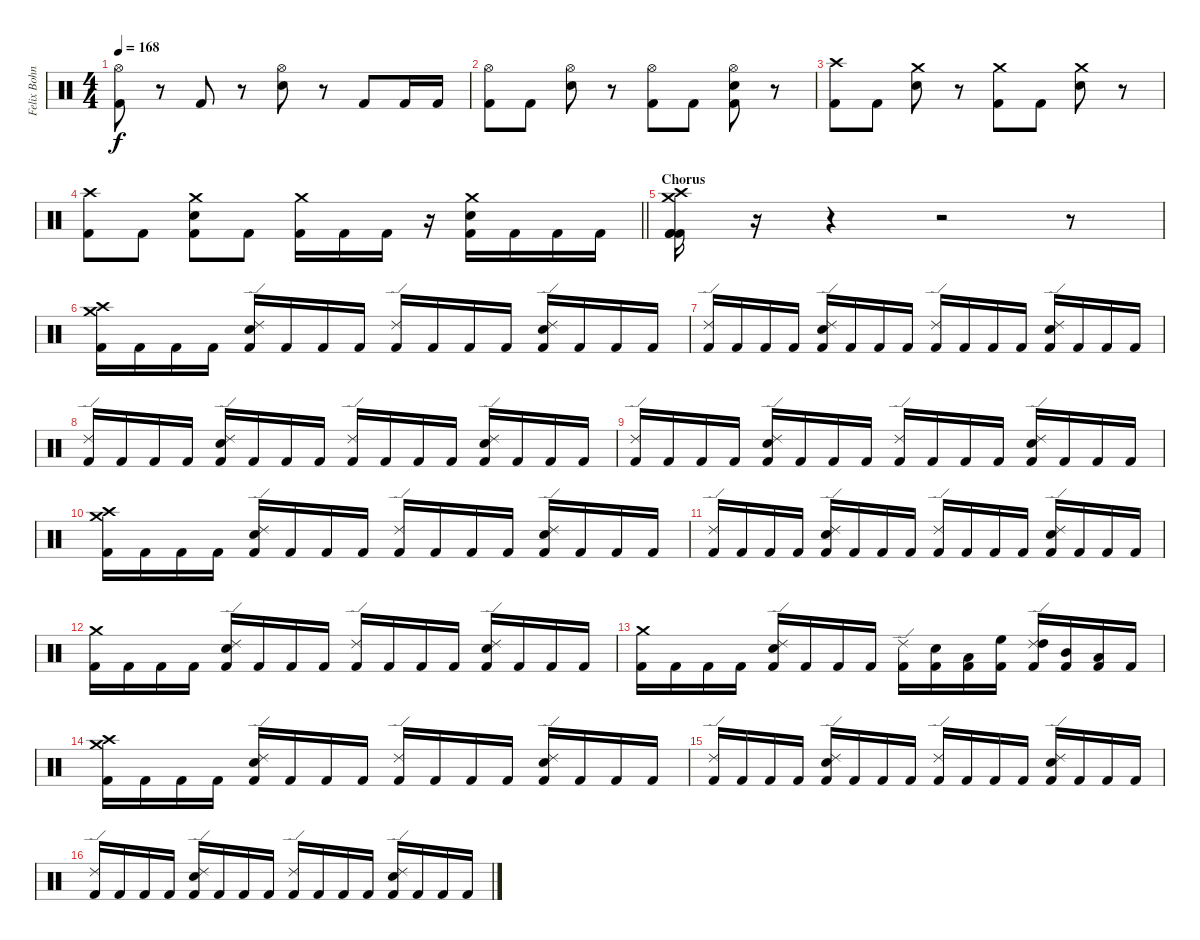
\track ("Felix Bohnke" "Felix Bohn") {instrument percussion}
\staff {score}
\articulation defaults
\ts (4 4)
\tempo 168
\clef neutral
\ks c
("Hi-Hat (open)" "Kick (hit) 2").8{dy f} r.8 "Kick (hit) 2".8 r.8 ("Hi-Hat (open)" "Electric Snare (hit)").8 r.8 "Kick (hit) 2".8 "Kick (hit) 2".16 "Kick (hit) 2".16 |
("Hi-Hat (open)" "Kick (hit) 2").8 "Kick (hit) 2".8 ("Hi-Hat (open)" "Snare (hit) 2").8 r.8 ("Hi-Hat (open)" "Kick (hit) 2").8 "Kick (hit) 2".8 ("Hi-Hat (open)" "Snare (hit) 2" "Kick (hit) 2").8 r.8 |
("Crash high (hit)" "Kick (hit) 2").8 "Kick (hit) 2".8 ("Crash medium (hit)" "Snare (hit) 2").8 r.8 ("Crash medium (hit)" "Kick (hit) 2").8 "Kick (hit) 2".8 ("Crash medium (hit)" "Snare (hit) 2").8 r.8 |
\barLineRight lightlight
("Crash high (hit)" "Kick (hit) 2").8 "Kick (hit) 2".8 ("Crash medium (hit)" "Snare (hit) 2" "Kick (hit) 2").8 "Kick (hit) 2".8 ("Crash medium (hit)" "Kick (hit) 2").16 "Kick (hit) 2".16 "Kick (hit) 2".16 r.16 ("Crash medium (hit)" "Snare (hit) 2" "Kick (hit) 2").16 "Kick (hit) 2".16 "Kick (hit) 2".16 "Kick (hit) 2".16 |
\section ("" "Chorus")
("Crash high (hit)" "Crash medium (hit)" "Kick (hit) 2" "Kick (hit) 2" "Kick (hit) 2").16 r.16 r.4 r.2 r.8 |
("Crash high (hit)" "Crash medium (hit)" "Kick (hit) 2").16 "Kick (hit) 2".16 "Kick (hit) 2".16 "Kick (hit) 2".16 ("Ride (edge) 2" "Snare (hit) 2" "Kick (hit) 2").16 "Kick (hit) 2".16 "Kick (hit) 2".16 "Kick (hit) 2".16 ("Ride (edge) 2" "Kick (hit) 2").16 "Kick (hit) 2".16 "Kick (hit) 2".16 "Kick (hit) 2".16 ("Ride (edge) 2" "Snare (hit) 2" "Kick (hit) 2").16 "Kick (hit) 2".16 "Kick (hit) 2".16 "Kick (hit) 2".16 |
("Ride (edge) 2" "Kick (hit) 2").16 "Kick (hit) 2".16 "Kick (hit) 2".16 "Kick (hit) 2".16 ("Ride (edge) 2" "Snare (hit) 2" "Kick (hit) 2").16 "Kick (hit) 2".16 "Kick (hit) 2".16 "Kick (hit) 2".16 ("Ride (edge) 2" "Kick (hit) 2").16 "Kick (hit) 2".16 "Kick (hit) 2".16 "Kick (hit) 2".16 ("Ride (edge) 2" "Snare (hit) 2" "Kick (hit) 2").16 "Kick (hit) 2".16 "Kick (hit) 2".16 "Kick (hit) 2".16 |
("Ride (edge) 2" "Kick (hit) 2").16 "Kick (hit) 2".16 "Kick (hit) 2".16 "Kick (hit) 2".16 ("Ride (edge) 2" "Snare (hit) 2" "Kick (hit) 2").16 "Kick (hit) 2".16 "Kick (hit) 2".16 "Kick (hit) 2".16 ("Ride (edge) 2" "Kick (hit) 2").16 "Kick (hit) 2".16 "Kick (hit) 2".16 "Kick (hit) 2".16 ("Ride (edge) 2" "Snare (hit) 2" "Kick (hit) 2").16 "Kick (hit) 2".16 "Kick (hit) 2".16 "Kick (hit) 2".16 |
("Ride (edge) 2" "Kick (hit) 2").16 "Kick (hit) 2".16 "Kick (hit) 2".16 "Kick (hit) 2".16 ("Ride (edge) 2" "Snare (hit) 2" "Kick (hit) 2").16 "Kick (hit) 2".16 "Kick (hit) 2".16 "Kick (hit) 2".16 ("Ride (edge) 2" "Kick (hit) 2").16 "Kick (hit) 2".16 "Kick (hit) 2".16 "Kick (hit) 2".16 ("Ride (edge) 2" "Snare (hit) 2" "Kick (hit) 2").16 "Kick (hit) 2".16 "Kick (hit) 2".16 "Kick (hit) 2".16 |
("Crash high (hit)" "Crash medium (hit)" "Kick (hit) 2").16 "Kick (hit) 2".16 "Kick (hit) 2".16 "Kick (hit) 2".16 ("Ride (edge) 2" "Snare (hit) 2" "Kick (hit) 2").16 "Kick (hit) 2".16 "Kick (hit) 2".16 "Kick (hit) 2".16 ("Ride (edge) 2" "Kick (hit) 2").16 "Kick (hit) 2".16 "Kick (hit) 2".16 "Kick (hit) 2".16 ("Ride (edge) 2" "Snare (hit) 2" "Kick (hit) 2").16 "Kick (hit) 2".16 "Kick (hit) 2".16 "Kick (hit) 2".16 |
("Ride (edge) 2" "Kick (hit) 2").16 "Kick (hit) 2".16 "Kick (hit) 2".16 "Kick (hit) 2".16 ("Ride (edge) 2" "Snare (hit) 2" "Kick (hit) 2").16 "Kick (hit) 2".16 "Kick (hit) 2".16 "Kick (hit) 2".16 ("Ride (edge) 2" "Kick (hit) 2").16 "Kick (hit) 2".16 "Kick (hit) 2".16 "Kick (hit) 2".16 ("Ride (edge) 2" "Snare (hit) 2" "Kick (hit) 2").16 "Kick (hit) 2".16 "Kick (hit) 2".16 "Kick (hit) 2".16 |
("Crash medium (hit)" "Kick (hit) 2").16 "Kick (hit) 2".16 "Kick (hit) 2".16 "Kick (hit) 2".16 ("Ride (edge) 2" "Snare (hit) 2" "Kick (hit) 2").16 "Kick (hit) 2".16 "Kick (hit) 2".16 "Kick (hit) 2".16 ("Ride (edge) 2" "Kick (hit) 2").16 "Kick (hit) 2".16 "Kick (hit) 2".16 "Kick (hit) 2".16 ("Ride (edge) 2" "Snare (hit) 2" "Kick (hit) 2").16 "Kick (hit) 2".16 "Kick (hit) 2".16 "Kick (hit) 2".16 |
("Crash medium (hit)" "Kick (hit) 2").16 "Kick (hit) 2".16 "Kick (hit) 2".16 "Kick (hit) 2".16 ("Ride (edge) 2" "Snare (hit) 2" "Kick (hit) 2").16 "Kick (hit) 2".16 "Kick (hit) 2".16 "Kick (hit) 2".16 ("Ride (edge) 2" "Kick (hit) 2").16 ("Snare (hit) 2" "Kick (hit) 2").16 ("Low Tom (hit)" "Kick (hit) 2").16 ("High Floor Tom (hit)" "Kick (hit) 2").16 ("Ride (edge) 2" "High Tom (hit)" "Kick (hit) 2").16 ("Mid Tom (hit)" "Kick (hit) 2").16 ("Low Tom (hit)" "Kick (hit) 2").16 "Kick (hit) 2".16 |
("Crash high (hit)" "Crash medium (hit)" "Kick (hit) 2").16 "Kick (hit) 2".16 "Kick (hit) 2".16 "Kick (hit) 2".16 ("Ride (edge) 2" "Snare (hit) 2" "Kick (hit) 2").16 "Kick (hit) 2".16 "Kick (hit) 2".16 "Kick (hit) 2".16 ("Ride (edge) 2" "Kick (hit) 2").16 "Kick (hit) 2".16 "Kick (hit) 2".16 "Kick (hit) 2".16 ("Ride (edge) 2" "Snare (hit) 2" "Kick (hit) 2").16 "Kick (hit) 2".16 "Kick (hit) 2".16 "Kick (hit) 2".16 |
("Ride (edge) 2" "Kick (hit) 2").16 "Kick (hit) 2".16 "Kick (hit) 2".16 "Kick (hit) 2".16 ("Ride (edge) 2" "Snare (hit) 2" "Kick (hit) 2").16 "Kick (hit) 2".16 "Kick (hit) 2".16 "Kick (hit) 2".16 ("Ride (edge) 2" "Kick (hit) 2").16 "Kick (hit) 2".16 "Kick (hit) 2".16 "Kick (hit) 2".16 ("Ride (edge) 2" "Snare (hit) 2" "Kick (hit) 2").16 "Kick (hit) 2".16 "Kick (hit) 2".16 "Kick (hit) 2".16 |
("Ride (edge) 2" "Kick (hit) 2").16 "Kick (hit) 2".16 "Kick (hit) 2".16 "Kick (hit) 2".16 ("Ride (edge) 2" "Snare (hit) 2" "Kick (hit) 2").16 "Kick (hit) 2".16 "Kick (hit) 2".16 "Kick (hit) 2".16 ("Ride (edge) 2" "Kick (hit) 2").16 "Kick (hit) 2".16 "Kick (hit) 2".16 "Kick (hit) 2".16 ("Ride (edge) 2" "Snare (hit) 2" "Kick (hit) 2").16 "Kick (hit) 2".16 "Kick (hit) 2".16 "Kick (hit) 2".16
